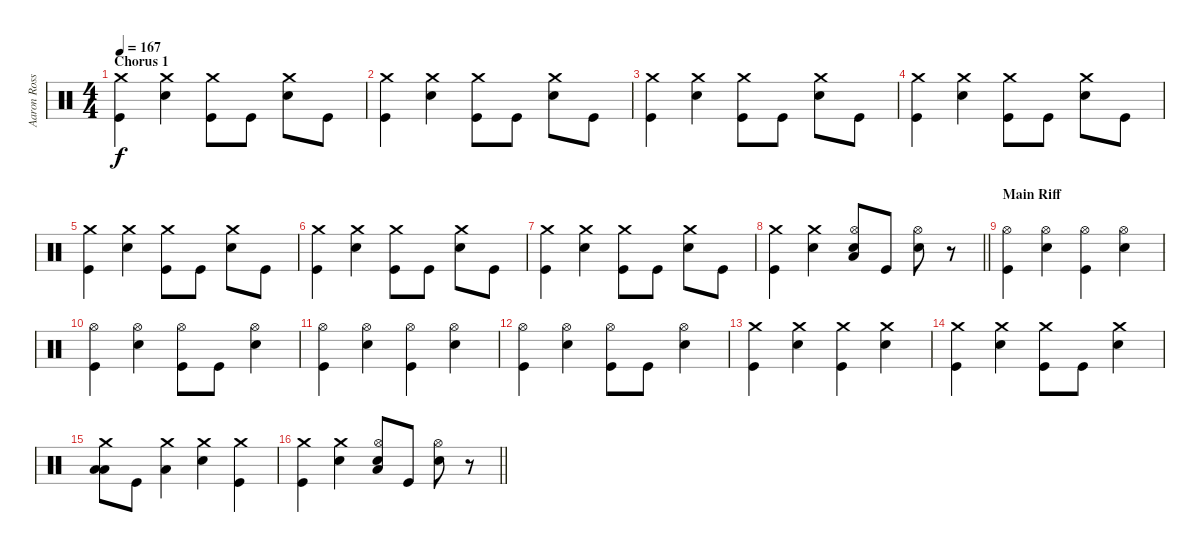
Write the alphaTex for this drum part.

\track ("Aaron Rossi (Drums)" "Aaron Ross") {instrument percussion}
\staff {score}
\articulation defaults
\ts (4 4)
\section ("" "Chorus 1")
\tempo 167
\clef neutral
\ks c
("Crash medium (hit)" "Kick (hit)").4{dy f} ("Crash medium (hit)" "Snare (hit) 2").4 ("Crash medium (hit)" "Kick (hit)").8 "Kick (hit)".8 ("Crash medium (hit)" "Snare (hit) 2").8 "Kick (hit)".8 |
("Crash medium (hit)" "Kick (hit)").4 ("Crash medium (hit)" "Snare (hit) 2").4 ("Crash medium (hit)" "Kick (hit)").8 "Kick (hit)".8 ("Crash medium (hit)" "Snare (hit) 2").8 "Kick (hit)".8 |
("Crash medium (hit)" "Kick (hit)").4 ("Crash medium (hit)" "Snare (hit) 2").4 ("Crash medium (hit)" "Kick (hit)").8 "Kick (hit)".8 ("Crash medium (hit)" "Snare (hit) 2").8 "Kick (hit)".8 |
("Crash medium (hit)" "Kick (hit)").4 ("Crash medium (hit)" "Snare (hit) 2").4 ("Crash medium (hit)" "Kick (hit)").8 "Kick (hit)".8 ("Crash medium (hit)" "Snare (hit) 2").8 "Kick (hit)".8 |
("Crash medium (hit)" "Kick (hit)").4 ("Crash medium (hit)" "Snare (hit) 2").4 ("Crash medium (hit)" "Kick (hit)").8 "Kick (hit)".8 ("Crash medium (hit)" "Snare (hit) 2").8 "Kick (hit)".8 |
("Crash medium (hit)" "Kick (hit)").4 ("Crash medium (hit)" "Snare (hit) 2").4 ("Crash medium (hit)" "Kick (hit)").8 "Kick (hit)".8 ("Crash medium (hit)" "Snare (hit) 2").8 "Kick (hit)".8 |
("Crash medium (hit)" "Kick (hit)").4 ("Crash medium (hit)" "Snare (hit) 2").4 ("Crash medium (hit)" "Kick (hit)").8 "Kick (hit)".8 ("Crash medium (hit)" "Snare (hit) 2").8 "Kick (hit)".8 |
\barLineRight lightlight
("Crash medium (hit)" "Kick (hit)").4 ("Crash medium (hit)" "Snare (hit) 2").4 ("Snare (hit) 2" "Hi-Hat (open)" "Low Floor Tom (hit)").8 "Kick (hit)".8 ("Snare (hit) 2" "Hi-Hat (open)").8 r.8 |
\section ("" "Main Riff")
("Hi-Hat (open)" "Kick (hit)").4 ("Snare (hit) 2" "Hi-Hat (open)").4 ("Hi-Hat (open)" "Kick (hit)").4 ("Snare (hit) 2" "Hi-Hat (open)").4 |
("Hi-Hat (open)" "Kick (hit)").4 ("Snare (hit) 2" "Hi-Hat (open)").4 ("Hi-Hat (open)" "Kick (hit)").8 "Kick (hit)".8 ("Snare (hit) 2" "Hi-Hat (open)").4 |
("Hi-Hat (open)" "Kick (hit)").4 ("Snare (hit) 2" "Hi-Hat (open)").4 ("Hi-Hat (open)" "Kick (hit)").4 ("Snare (hit) 2" "Hi-Hat (open)").4 |
("Hi-Hat (open)" "Kick (hit)").4 ("Snare (hit) 2" "Hi-Hat (open)").4 ("Hi-Hat (open)" "Kick (hit)").8 "Kick (hit)".8 ("Snare (hit) 2" "Hi-Hat (open)").4 |
("Crash medium (hit)" "Kick (hit)").4 ("Crash medium (hit)" "Snare (hit) 2").4 ("Crash medium (hit)" "Kick (hit)").4 ("Crash medium (hit)" "Snare (hit) 2").4 |
("Crash medium (hit)" "Kick (hit)").4 ("Crash medium (hit)" "Snare (hit) 2").4 ("Crash medium (hit)" "Kick (hit)").8 "Kick (hit)".8 ("Crash medium (hit)" "Snare (hit) 2").4 |
("Crash medium (hit)" "Low Floor Tom (hit)" "Low Tom (hit)").8 "Kick (hit)".8 ("Crash medium (hit)" "Low Floor Tom (hit)").4 ("Crash medium (hit)" "Snare (hit) 2").4 ("Crash medium (hit)" "Kick (hit)").4 |
\barLineRight lightlight
("Crash medium (hit)" "Kick (hit)").4 ("Crash medium (hit)" "Snare (hit) 2").4 ("Snare (hit) 2" "Hi-Hat (open)" "Low Floor Tom (hit)").8 "Kick (hit)".8 ("Snare (hit) 2" "Hi-Hat (open)").8 r.8
